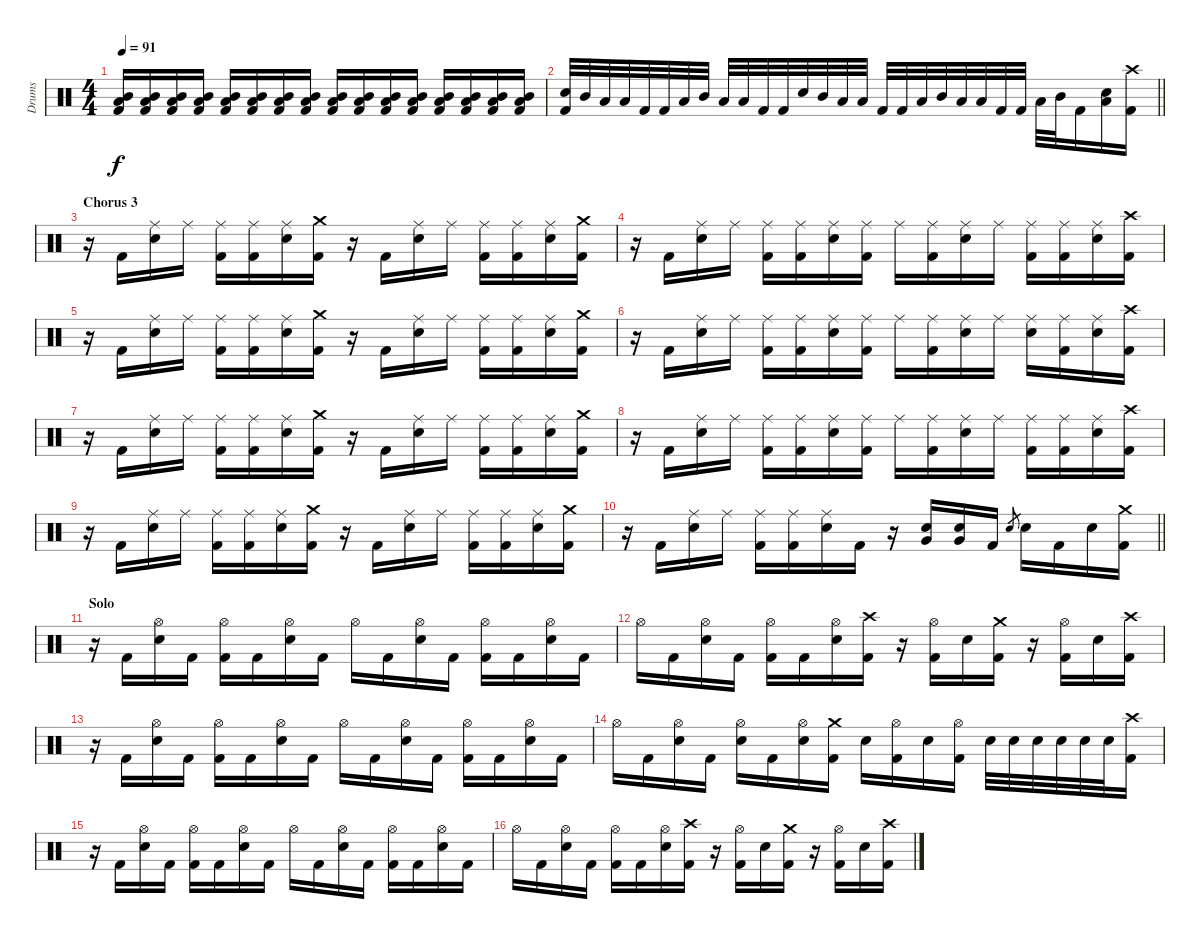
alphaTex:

\track ("Drums" "Drums") {instrument percussion}
\staff {score}
\articulation defaults
\ts (4 4)
\tempo 91
\clef neutral
\ks c
("Mid Tom (hit)" "Low Tom (hit)" "Kick (hit) 2").16{dy f} ("Mid Tom (hit)" "Low Tom (hit)" "Kick (hit) 2").16 ("Mid Tom (hit)" "Low Tom (hit)" "Kick (hit) 2").16 ("Mid Tom (hit)" "Low Tom (hit)" "Kick (hit) 2").16 ("Mid Tom (hit)" "Low Tom (hit)" "Kick (hit) 2").16 ("Mid Tom (hit)" "Low Tom (hit)" "Kick (hit) 2").16 ("Mid Tom (hit)" "Low Tom (hit)" "Kick (hit) 2").16 ("Mid Tom (hit)" "Low Tom (hit)" "Kick (hit) 2").16 ("Mid Tom (hit)" "Low Tom (hit)" "Kick (hit) 2").16 ("Mid Tom (hit)" "Low Tom (hit)" "Kick (hit) 2").16 ("Mid Tom (hit)" "Low Tom (hit)" "Kick (hit) 2").16 ("Mid Tom (hit)" "Low Tom (hit)" "Kick (hit) 2").16 ("Mid Tom (hit)" "Low Tom (hit)" "Kick (hit) 2").16 ("Mid Tom (hit)" "Low Tom (hit)" "Kick (hit) 2").16 ("Mid Tom (hit)" "Low Tom (hit)" "Kick (hit) 2").16 ("Mid Tom (hit)" "Low Tom (hit)" "Kick (hit) 2").16 |
\barLineRight lightlight
("Snare (hit) 2" "Kick (hit) 2").32 "Mid Tom (hit)".32 "Low Tom (hit)".32 "Low Tom (hit)".32 "Kick (hit) 2".32 "Kick (hit) 2".32 "Low Tom (hit)".32 "Mid Tom (hit)".32 "Low Tom (hit)".32 "Low Tom (hit)".32 "Kick (hit) 2".32 "Kick (hit) 2".32 "Snare (hit) 2".32 "Mid Tom (hit)".32 "Low Tom (hit)".32 "Low Tom (hit)".32 "Kick (hit) 2".32 "Kick (hit) 2".32 "Low Tom (hit)".32 "Mid Tom (hit)".32 "Low Tom (hit)".32 "Low Tom (hit)".32 "Kick (hit) 2".32 "Kick (hit) 2".32 "Low Tom (hit)".32 "Mid Tom (hit)".32 "Kick (hit) 2".16 ("Low Tom (hit)" "Snare (hit) 2").16 ("Crash high (hit)" "Kick (hit) 2").16 |
\section ("" "Chorus 3")
r.16 "Kick (hit) 2".16 ("Ride (middle)" "Snare (hit) 2").16 "Ride (middle)".16 ("Ride (middle)" "Kick (hit) 2").16 ("Ride (middle)" "Kick (hit) 2").16 ("Ride (middle)" "Snare (hit) 2").16 ("Crash medium (hit)" "Kick (hit) 2").16 r.16 "Kick (hit) 2".16 ("Ride (middle)" "Snare (hit) 2").16 "Ride (middle)".16 ("Ride (middle)" "Kick (hit) 2").16 ("Ride (middle)" "Kick (hit) 2").16 ("Ride (middle)" "Snare (hit) 2").16 ("Crash medium (hit)" "Kick (hit) 2").16 |
r.16 "Kick (hit) 2".16 ("Ride (middle)" "Snare (hit) 2").16 "Ride (middle)".16 ("Ride (middle)" "Kick (hit) 2").16 ("Ride (middle)" "Kick (hit) 2").16 ("Ride (middle)" "Snare (hit) 2").16 ("Ride (middle)" "Kick (hit) 2").16 "Ride (middle)".16 ("Ride (middle)" "Kick (hit) 2").16 ("Ride (middle)" "Snare (hit) 2").16 "Ride (middle)".16 ("Ride (middle)" "Kick (hit) 2").16 ("Ride (middle)" "Kick (hit) 2").16 ("Ride (middle)" "Snare (hit) 2").16 ("Crash high (hit)" "Kick (hit) 2").16 |
r.16 "Kick (hit) 2".16 ("Ride (middle)" "Snare (hit) 2").16 "Ride (middle)".16 ("Ride (middle)" "Kick (hit) 2").16 ("Ride (middle)" "Kick (hit) 2").16 ("Ride (middle)" "Snare (hit) 2").16 ("Crash medium (hit)" "Kick (hit) 2").16 r.16 "Kick (hit) 2".16 ("Ride (middle)" "Snare (hit) 2").16 "Ride (middle)".16 ("Ride (middle)" "Kick (hit) 2").16 ("Ride (middle)" "Kick (hit) 2").16 ("Ride (middle)" "Snare (hit) 2").16 ("Crash medium (hit)" "Kick (hit) 2").16 |
r.16 "Kick (hit) 2".16 ("Ride (middle)" "Snare (hit) 2").16 "Ride (middle)".16 ("Ride (middle)" "Kick (hit) 2").16 ("Ride (middle)" "Kick (hit) 2").16 ("Ride (middle)" "Snare (hit) 2").16 ("Ride (middle)" "Kick (hit) 2").16 "Ride (middle)".16 ("Ride (middle)" "Kick (hit) 2").16 ("Ride (middle)" "Snare (hit) 2").16 "Ride (middle)".16 ("Ride (middle)" "Snare (hit) 2").16 ("Ride (middle)" "Kick (hit) 2").16 ("Ride (middle)" "Snare (hit) 2").16 ("Crash high (hit)" "Kick (hit) 2").16 |
r.16 "Kick (hit) 2".16 ("Ride (middle)" "Snare (hit) 2").16 "Ride (middle)".16 ("Ride (middle)" "Kick (hit) 2").16 ("Ride (middle)" "Kick (hit) 2").16 ("Ride (middle)" "Snare (hit) 2").16 ("Crash medium (hit)" "Kick (hit) 2").16 r.16 "Kick (hit) 2".16 ("Ride (middle)" "Snare (hit) 2").16 "Ride (middle)".16 ("Ride (middle)" "Kick (hit) 2").16 ("Ride (middle)" "Kick (hit) 2").16 ("Ride (middle)" "Snare (hit) 2").16 ("Crash medium (hit)" "Kick (hit) 2").16 |
r.16 "Kick (hit) 2".16 ("Ride (middle)" "Snare (hit) 2").16 "Ride (middle)".16 ("Ride (middle)" "Kick (hit) 2").16 ("Ride (middle)" "Kick (hit) 2").16 ("Ride (middle)" "Snare (hit) 2").16 ("Ride (middle)" "Kick (hit) 2").16 "Ride (middle)".16 ("Ride (middle)" "Kick (hit) 2").16 ("Ride (middle)" "Snare (hit) 2").16 "Ride (middle)".16 ("Ride (middle)" "Kick (hit) 2").16 ("Ride (middle)" "Kick (hit) 2").16 ("Ride (middle)" "Snare (hit) 2").16 ("Crash high (hit)" "Kick (hit) 2").16 |
r.16 "Kick (hit) 2".16 ("Ride (middle)" "Snare (hit) 2").16 "Ride (middle)".16 ("Ride (middle)" "Kick (hit) 2").16 ("Ride (middle)" "Kick (hit) 2").16 ("Ride (middle)" "Snare (hit) 2").16 ("Crash medium (hit)" "Kick (hit) 2").16 r.16 "Kick (hit) 2".16 ("Ride (middle)" "Snare (hit) 2").16 "Ride (middle)".16 ("Ride (middle)" "Kick (hit) 2").16 ("Ride (middle)" "Kick (hit) 2").16 ("Ride (middle)" "Snare (hit) 2").16 ("Crash medium (hit)" "Kick (hit) 2").16 |
\barLineRight lightlight
r.16 "Kick (hit) 2".16 ("Ride (middle)" "Snare (hit) 2").16 "Ride (middle)".16 ("Ride (middle)" "Kick (hit) 2").16 ("Ride (middle)" "Kick (hit) 2").16 ("Ride (middle)" "Snare (hit) 2").16 "Kick (hit) 2".16 r.16 ("Very Low Tom (hit)" "Snare (hit) 2").16 ("Very Low Tom (hit)" "Snare (hit) 2").16 "Kick (hit) 2".16 "Snare (hit) 2".8{gr} "Snare (hit) 2".16 "Kick (hit) 2".16 "Snare (hit) 2".16 ("Crash medium (hit)" "Kick (hit) 2").16 |
\section ("" "Solo")
r.16 "Kick (hit) 2".16 ("Hi-Hat (open)" "Snare (hit) 2").16 "Kick (hit) 2".16 ("Hi-Hat (open)" "Kick (hit) 2").16 "Kick (hit) 2".16 ("Hi-Hat (open)" "Snare (hit) 2").16 "Kick (hit) 2".16 "Hi-Hat (open)".16 "Kick (hit) 2".16 ("Hi-Hat (open)" "Snare (hit) 2").16 "Kick (hit) 2".16 ("Hi-Hat (open)" "Kick (hit) 2").16 "Kick (hit) 2".16 ("Hi-Hat (open)" "Snare (hit) 2").16 "Kick (hit) 2".16 |
"Hi-Hat (open)".16 "Kick (hit) 2".16 ("Hi-Hat (open)" "Snare (hit) 2").16 "Kick (hit) 2".16 ("Hi-Hat (open)" "Kick (hit) 2").16 "Kick (hit) 2".16 ("Hi-Hat (open)" "Snare (hit) 2").16 ("Crash high (hit)" "Kick (hit) 2").16 r.16 ("Hi-Hat (open)" "Kick (hit) 2").16 "Snare (hit) 2".16 ("Crash medium (hit)" "Kick (hit) 2").16 r.16 ("Hi-Hat (open)" "Kick (hit) 2").16 "Snare (hit) 2".16 ("Crash high (hit)" "Kick (hit) 2").16 |
r.16 "Kick (hit) 2".16 ("Hi-Hat (open)" "Snare (hit) 2").16 "Kick (hit) 2".16 ("Hi-Hat (open)" "Kick (hit) 2").16 "Kick (hit) 2".16 ("Hi-Hat (open)" "Snare (hit) 2").16 "Kick (hit) 2".16 "Hi-Hat (open)".16 "Kick (hit) 2".16 ("Hi-Hat (open)" "Snare (hit) 2").16 "Kick (hit) 2".16 ("Hi-Hat (open)" "Kick (hit) 2").16 "Kick (hit) 2".16 ("Hi-Hat (open)" "Snare (hit) 2").16 "Kick (hit) 2".16 |
"Hi-Hat (open)".16 "Kick (hit) 2".16 ("Hi-Hat (open)" "Snare (hit) 2").16 "Kick (hit) 2".16 ("Hi-Hat (open)" "Snare (hit) 2").16 "Kick (hit) 2".16 ("Hi-Hat (open)" "Snare (hit) 2").16 ("Crash medium (hit)" "Kick (hit) 2").16 "Snare (hit) 2".16 ("Hi-Hat (open)" "Kick (hit) 2").16 "Snare (hit) 2".16 ("Hi-Hat (open)" "Kick (hit) 2").16 "Snare (hit) 2".32 "Snare (hit) 2".32 "Snare (hit) 2".32 "Snare (hit) 2".32 "Snare (hit) 2".32 "Snare (hit) 2".32 ("Crash high (hit)" "Kick (hit) 2").16 |
r.16 "Kick (hit) 2".16 ("Hi-Hat (open)" "Snare (hit) 2").16 "Kick (hit) 2".16 ("Hi-Hat (open)" "Kick (hit) 2").16 "Kick (hit) 2".16 ("Hi-Hat (open)" "Snare (hit) 2").16 "Kick (hit) 2".16 "Hi-Hat (open)".16 "Kick (hit) 2".16 ("Hi-Hat (open)" "Snare (hit) 2").16 "Kick (hit) 2".16 ("Hi-Hat (open)" "Kick (hit) 2").16 "Kick (hit) 2".16 ("Hi-Hat (open)" "Snare (hit) 2").16 "Kick (hit) 2".16 |
"Hi-Hat (open)".16 "Kick (hit) 2".16 ("Hi-Hat (open)" "Snare (hit) 2").16 "Kick (hit) 2".16 ("Hi-Hat (open)" "Kick (hit) 2").16 "Kick (hit) 2".16 ("Hi-Hat (open)" "Snare (hit) 2").16 ("Crash high (hit)" "Kick (hit) 2").16 r.16 ("Hi-Hat (open)" "Kick (hit) 2").16 "Snare (hit) 2".16 ("Crash medium (hit)" "Kick (hit) 2").16 r.16 ("Hi-Hat (open)" "Kick (hit) 2").16 "Snare (hit) 2".16 ("Crash high (hit)" "Kick (hit) 2").16
